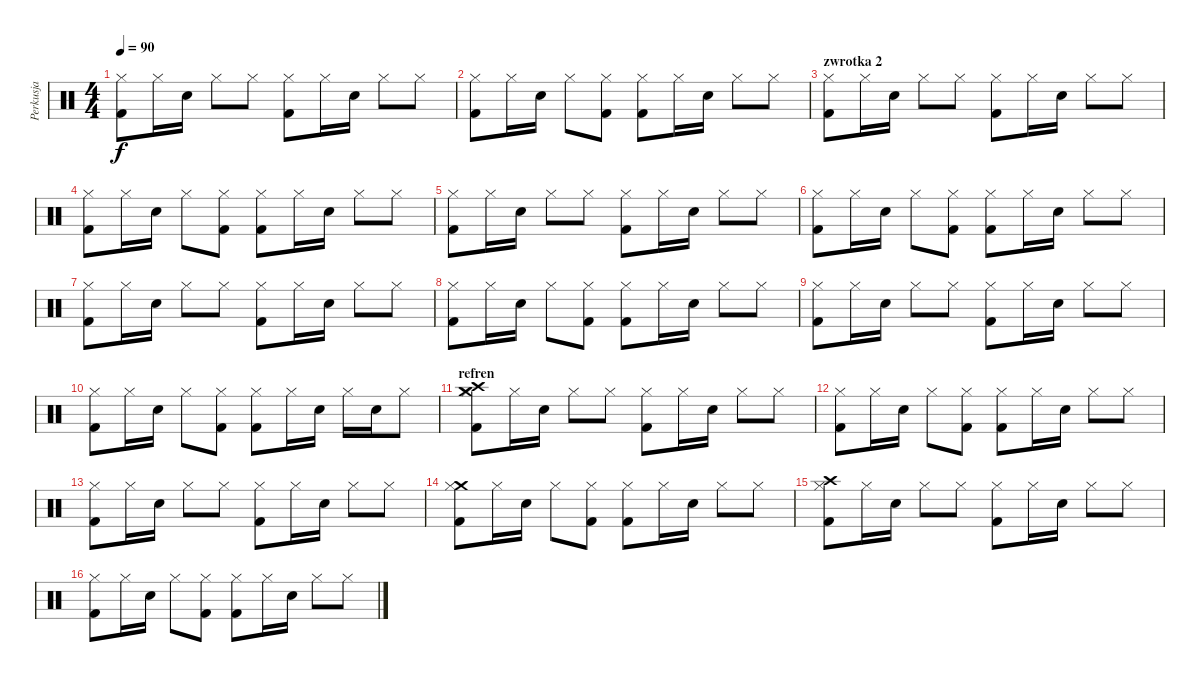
\track ("Perkusja" "Perkusja") {instrument percussion}
\staff {score}
\articulation defaults
\ts (4 4)
\tempo 90
\clef neutral
\ks c
("Kick (hit) 2" "Hi-Hat (closed)").8{dy f} "Hi-Hat (closed)".16 "Electric Snare (hit)".16 "Hi-Hat (closed)".8 "Hi-Hat (closed)".8 ("Kick (hit) 2" "Hi-Hat (closed)").8 "Hi-Hat (closed)".16 "Electric Snare (hit)".16 "Hi-Hat (closed)".8 "Hi-Hat (closed)".8 |
("Kick (hit) 2" "Hi-Hat (closed)").8 "Hi-Hat (closed)".16 "Electric Snare (hit)".16 "Hi-Hat (closed)".8 ("Kick (hit) 2" "Hi-Hat (closed)").8 ("Kick (hit) 2" "Hi-Hat (closed)").8 "Hi-Hat (closed)".16 "Electric Snare (hit)".16 "Hi-Hat (closed)".8 "Hi-Hat (closed)".8 |
\section ("" "zwrotka 2")
("Kick (hit) 2" "Hi-Hat (closed)").8 "Hi-Hat (closed)".16 "Electric Snare (hit)".16 "Hi-Hat (closed)".8 "Hi-Hat (closed)".8 ("Kick (hit) 2" "Hi-Hat (closed)").8 "Hi-Hat (closed)".16 "Electric Snare (hit)".16 "Hi-Hat (closed)".8 "Hi-Hat (closed)".8 |
("Kick (hit) 2" "Hi-Hat (closed)").8 "Hi-Hat (closed)".16 "Electric Snare (hit)".16 "Hi-Hat (closed)".8 ("Kick (hit) 2" "Hi-Hat (closed)").8 ("Kick (hit) 2" "Hi-Hat (closed)").8 "Hi-Hat (closed)".16 "Electric Snare (hit)".16 "Hi-Hat (closed)".8 "Hi-Hat (closed)".8 |
("Kick (hit) 2" "Hi-Hat (closed)").8 "Hi-Hat (closed)".16 "Electric Snare (hit)".16 "Hi-Hat (closed)".8 "Hi-Hat (closed)".8 ("Kick (hit) 2" "Hi-Hat (closed)").8 "Hi-Hat (closed)".16 "Electric Snare (hit)".16 "Hi-Hat (closed)".8 "Hi-Hat (closed)".8 |
("Kick (hit) 2" "Hi-Hat (closed)").8 "Hi-Hat (closed)".16 "Electric Snare (hit)".16 "Hi-Hat (closed)".8 ("Kick (hit) 2" "Hi-Hat (closed)").8 ("Kick (hit) 2" "Hi-Hat (closed)").8 "Hi-Hat (closed)".16 "Electric Snare (hit)".16 "Hi-Hat (closed)".8 "Hi-Hat (closed)".8 |
("Kick (hit) 2" "Hi-Hat (closed)").8 "Hi-Hat (closed)".16 "Electric Snare (hit)".16 "Hi-Hat (closed)".8 "Hi-Hat (closed)".8 ("Kick (hit) 2" "Hi-Hat (closed)").8 "Hi-Hat (closed)".16 "Electric Snare (hit)".16 "Hi-Hat (closed)".8 "Hi-Hat (closed)".8 |
("Kick (hit) 2" "Hi-Hat (closed)").8 "Hi-Hat (closed)".16 "Electric Snare (hit)".16 "Hi-Hat (closed)".8 ("Kick (hit) 2" "Hi-Hat (closed)").8 ("Kick (hit) 2" "Hi-Hat (closed)").8 "Hi-Hat (closed)".16 "Electric Snare (hit)".16 "Hi-Hat (closed)".8 "Hi-Hat (closed)".8 |
("Kick (hit) 2" "Hi-Hat (closed)").8 "Hi-Hat (closed)".16 "Electric Snare (hit)".16 "Hi-Hat (closed)".8 "Hi-Hat (closed)".8 ("Kick (hit) 2" "Hi-Hat (closed)").8 "Hi-Hat (closed)".16 "Electric Snare (hit)".16 "Hi-Hat (closed)".8 "Hi-Hat (closed)".8 |
("Kick (hit) 2" "Hi-Hat (closed)").8 "Hi-Hat (closed)".16 "Electric Snare (hit)".16 "Hi-Hat (closed)".8 ("Kick (hit) 2" "Hi-Hat (closed)").8 ("Kick (hit) 2" "Hi-Hat (closed)").8 "Hi-Hat (closed)".16 "Electric Snare (hit)".16 "Hi-Hat (closed)".16 "Electric Snare (hit)".16 "Hi-Hat (closed)".8 |
\section ("" "refren")
("Crash medium (hit)" "Crash high (hit)" "Kick (hit) 2" "Hi-Hat (closed)").8 "Hi-Hat (closed)".16 "Electric Snare (hit)".16 "Hi-Hat (closed)".8 "Hi-Hat (closed)".8 ("Kick (hit) 2" "Hi-Hat (closed)").8 "Hi-Hat (closed)".16 "Electric Snare (hit)".16 "Hi-Hat (closed)".8 "Hi-Hat (closed)".8 |
("Kick (hit) 2" "Hi-Hat (closed)").8 "Hi-Hat (closed)".16 "Electric Snare (hit)".16 "Hi-Hat (closed)".8 ("Kick (hit) 2" "Hi-Hat (closed)").8 ("Kick (hit) 2" "Hi-Hat (closed)").8 "Hi-Hat (closed)".16 "Electric Snare (hit)".16 "Hi-Hat (closed)".8 "Hi-Hat (closed)".8 |
("Kick (hit) 2" "Hi-Hat (closed)").8 "Hi-Hat (closed)".16 "Electric Snare (hit)".16 "Hi-Hat (closed)".8 "Hi-Hat (closed)".8 ("Kick (hit) 2" "Hi-Hat (closed)").8 "Hi-Hat (closed)".16 "Electric Snare (hit)".16 "Hi-Hat (closed)".8 "Hi-Hat (closed)".8 |
("Crash medium (hit)" "Kick (hit) 2" "Hi-Hat (closed)").8 "Hi-Hat (closed)".16 "Electric Snare (hit)".16 "Hi-Hat (closed)".8 ("Kick (hit) 2" "Hi-Hat (closed)").8 ("Kick (hit) 2" "Hi-Hat (closed)").8 "Hi-Hat (closed)".16 "Electric Snare (hit)".16 "Hi-Hat (closed)".8 "Hi-Hat (closed)".8 |
("Crash high (hit)" "Kick (hit) 2" "Hi-Hat (closed)").8 "Hi-Hat (closed)".16 "Electric Snare (hit)".16 "Hi-Hat (closed)".8 "Hi-Hat (closed)".8 ("Kick (hit) 2" "Hi-Hat (closed)").8 "Hi-Hat (closed)".16 "Electric Snare (hit)".16 "Hi-Hat (closed)".8 "Hi-Hat (closed)".8 |
("Kick (hit) 2" "Hi-Hat (closed)").8 "Hi-Hat (closed)".16 "Electric Snare (hit)".16 "Hi-Hat (closed)".8 ("Kick (hit) 2" "Hi-Hat (closed)").8 ("Kick (hit) 2" "Hi-Hat (closed)").8 "Hi-Hat (closed)".16 "Electric Snare (hit)".16 "Hi-Hat (closed)".8 "Hi-Hat (closed)".8
